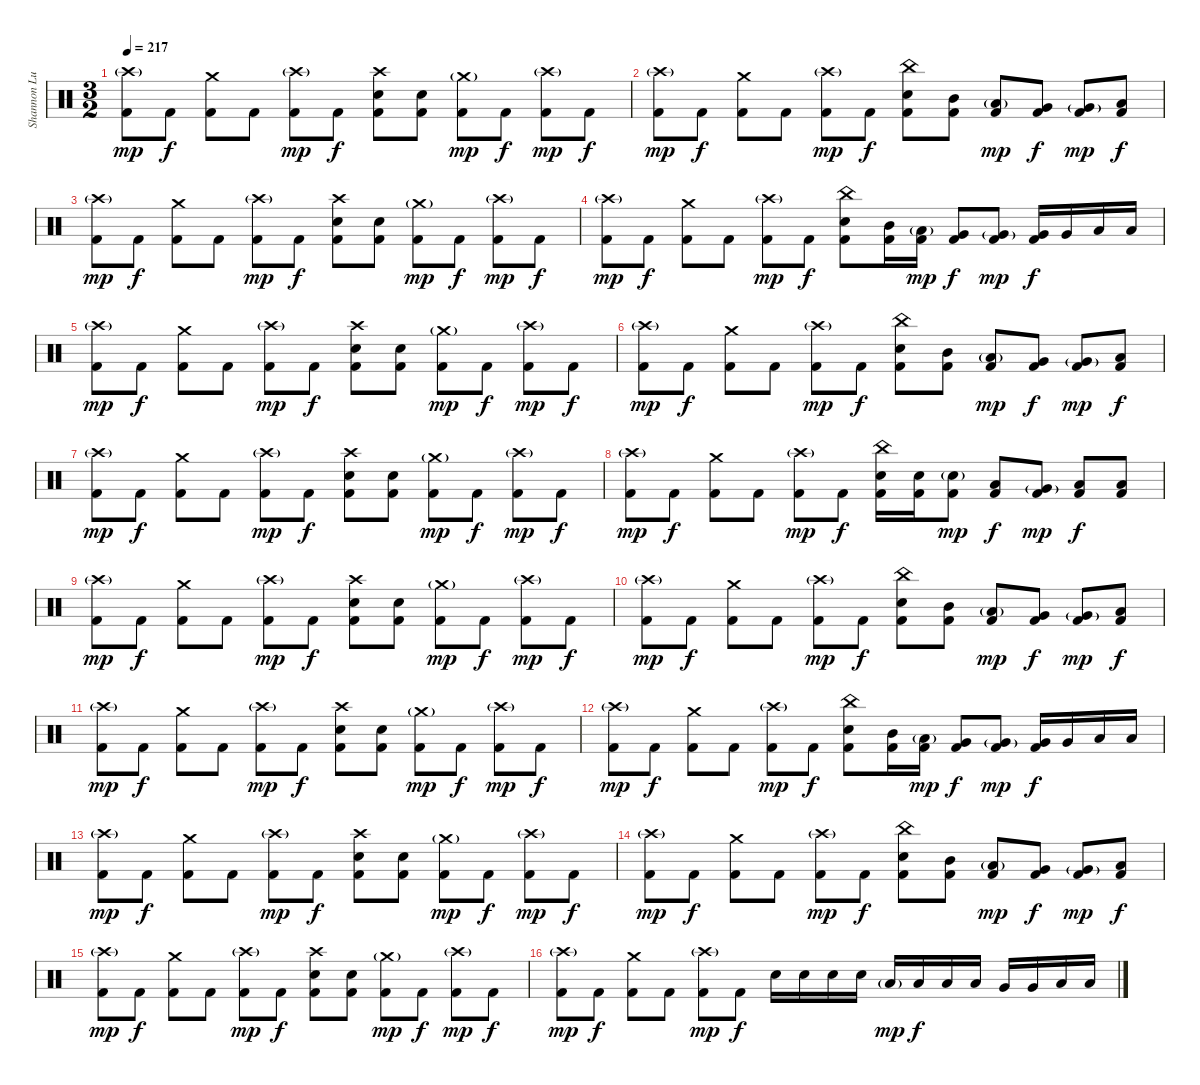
\track ("Shannon Lucas [Drums (Since 2007)]" "Shannon Lu") {instrument percussion}
\staff {score}
\articulation defaults
\ts (3 2)
\tempo 217
\clef neutral
\ks c
("Crash high (hit)"{g} "Kick (hit) 2").8{dy mp} "Kick (hit) 2".8{dy f} ("Crash medium (hit)" "Kick (hit) 2").8 "Kick (hit) 2".8 ("Crash high (hit)"{g} "Kick (hit) 2").8{dy mp} "Kick (hit) 2".8{dy f} ("Crash high (hit)" "Snare (hit) 2" "Kick (hit) 2").8 ("Snare (hit) 2" "Kick (hit) 2").8 ("Crash medium (hit)"{g} "Kick (hit) 2").8{dy mp} "Kick (hit) 2".8{dy f} ("Crash high (hit)"{g} "Kick (hit) 2").8{dy mp} "Kick (hit) 2".8{dy f} |
("Crash high (hit)"{g} "Kick (hit) 2").8{dy mp} "Kick (hit) 2".8{dy f} ("Crash medium (hit)" "Kick (hit) 2").8 "Kick (hit) 2".8 ("Crash high (hit)"{g} "Kick (hit) 2").8{dy mp} "Kick (hit) 2".8{dy f} ("China (hit)" "Snare (hit) 2" "Kick (hit) 2").8 ("Mid Tom (hit)" "Kick (hit) 2").8 ("Low Tom (hit)"{g} "Kick (hit) 2").8{dy mp} ("Very Low Tom (hit)" "Kick (hit) 2").8{dy f} ("Very Low Tom (hit)"{g} "Kick (hit) 2").8{dy mp} ("Low Floor Tom (hit)" "Kick (hit) 2").8{dy f} |
("Crash high (hit)"{g} "Kick (hit) 2").8{dy mp} "Kick (hit) 2".8{dy f} ("Crash medium (hit)" "Kick (hit) 2").8 "Kick (hit) 2".8 ("Crash high (hit)"{g} "Kick (hit) 2").8{dy mp} "Kick (hit) 2".8{dy f} ("Crash high (hit)" "Snare (hit) 2" "Kick (hit) 2").8 ("Snare (hit) 2" "Kick (hit) 2").8 ("Crash medium (hit)"{g} "Kick (hit) 2").8{dy mp} "Kick (hit) 2".8{dy f} ("Crash high (hit)"{g} "Kick (hit) 2").8{dy mp} "Kick (hit) 2".8{dy f} |
("Crash high (hit)"{g} "Kick (hit) 2").8{dy mp} "Kick (hit) 2".8{dy f} ("Crash medium (hit)" "Kick (hit) 2").8 "Kick (hit) 2".8 ("Crash high (hit)"{g} "Kick (hit) 2").8{dy mp} "Kick (hit) 2".8{dy f} ("China (hit)" "Snare (hit) 2" "Kick (hit) 2").8 ("Mid Tom (hit)" "Kick (hit) 2").16 ("Low Tom (hit)"{g} "Kick (hit) 2").16{dy mp} ("Very Low Tom (hit)" "Kick (hit) 2").8{dy f} ("Very Low Tom (hit)"{g} "Kick (hit) 2").8{dy mp} ("Very Low Tom (hit)" "Kick (hit) 2").16{dy f} "Very Low Tom (hit)".16 "Low Floor Tom (hit)".16 "Low Floor Tom (hit)".16 |
("Crash high (hit)"{g} "Kick (hit) 2").8{dy mp} "Kick (hit) 2".8{dy f} ("Crash medium (hit)" "Kick (hit) 2").8 "Kick (hit) 2".8 ("Crash high (hit)"{g} "Kick (hit) 2").8{dy mp} "Kick (hit) 2".8{dy f} ("Crash high (hit)" "Snare (hit) 2" "Kick (hit) 2").8 ("Snare (hit) 2" "Kick (hit) 2").8 ("Crash medium (hit)"{g} "Kick (hit) 2").8{dy mp} "Kick (hit) 2".8{dy f} ("Crash high (hit)"{g} "Kick (hit) 2").8{dy mp} "Kick (hit) 2".8{dy f} |
("Crash high (hit)"{g} "Kick (hit) 2").8{dy mp} "Kick (hit) 2".8{dy f} ("Crash medium (hit)" "Kick (hit) 2").8 "Kick (hit) 2".8 ("Crash high (hit)"{g} "Kick (hit) 2").8{dy mp} "Kick (hit) 2".8{dy f} ("China (hit)" "Snare (hit) 2" "Kick (hit) 2").8 ("Mid Tom (hit)" "Kick (hit) 2").8 ("Low Tom (hit)"{g} "Kick (hit) 2").8{dy mp} ("Very Low Tom (hit)" "Kick (hit) 2").8{dy f} ("Very Low Tom (hit)"{g} "Kick (hit) 2").8{dy mp} ("Low Floor Tom (hit)" "Kick (hit) 2").8{dy f} |
("Crash high (hit)"{g} "Kick (hit) 2").8{dy mp} "Kick (hit) 2".8{dy f} ("Crash medium (hit)" "Kick (hit) 2").8 "Kick (hit) 2".8 ("Crash high (hit)"{g} "Kick (hit) 2").8{dy mp} "Kick (hit) 2".8{dy f} ("Crash high (hit)" "Snare (hit) 2" "Kick (hit) 2").8 ("Snare (hit) 2" "Kick (hit) 2").8 ("Crash medium (hit)"{g} "Kick (hit) 2").8{dy mp} "Kick (hit) 2".8{dy f} ("Crash high (hit)"{g} "Kick (hit) 2").8{dy mp} "Kick (hit) 2".8{dy f} |
("Crash high (hit)"{g} "Kick (hit) 2").8{dy mp} "Kick (hit) 2".8{dy f} ("Crash medium (hit)" "Kick (hit) 2").8 "Kick (hit) 2".8 ("Crash high (hit)"{g} "Kick (hit) 2").8{dy mp} "Kick (hit) 2".8{dy f} ("China (hit)" "Snare (hit) 2" "Kick (hit) 2").16 ("Snare (hit) 2" "Kick (hit) 2").16 ("Snare (hit) 2"{g} "Kick (hit) 2").8{dy mp} ("Low Tom (hit)" "Kick (hit) 2").8{dy f} ("Very Low Tom (hit)"{g} "Kick (hit) 2").8{dy mp} ("Low Floor Tom (hit)" "Kick (hit) 2").8{dy f} ("Low Floor Tom (hit)" "Kick (hit) 2").8 |
("Crash high (hit)"{g} "Kick (hit) 2").8{dy mp} "Kick (hit) 2".8{dy f} ("Crash medium (hit)" "Kick (hit) 2").8 "Kick (hit) 2".8 ("Crash high (hit)"{g} "Kick (hit) 2").8{dy mp} "Kick (hit) 2".8{dy f} ("Crash high (hit)" "Snare (hit) 2" "Kick (hit) 2").8 ("Snare (hit) 2" "Kick (hit) 2").8 ("Crash medium (hit)"{g} "Kick (hit) 2").8{dy mp} "Kick (hit) 2".8{dy f} ("Crash high (hit)"{g} "Kick (hit) 2").8{dy mp} "Kick (hit) 2".8{dy f} |
("Crash high (hit)"{g} "Kick (hit) 2").8{dy mp} "Kick (hit) 2".8{dy f} ("Crash medium (hit)" "Kick (hit) 2").8 "Kick (hit) 2".8 ("Crash high (hit)"{g} "Kick (hit) 2").8{dy mp} "Kick (hit) 2".8{dy f} ("China (hit)" "Snare (hit) 2" "Kick (hit) 2").8 ("Mid Tom (hit)" "Kick (hit) 2").8 ("Low Tom (hit)"{g} "Kick (hit) 2").8{dy mp} ("Very Low Tom (hit)" "Kick (hit) 2").8{dy f} ("Very Low Tom (hit)"{g} "Kick (hit) 2").8{dy mp} ("Low Floor Tom (hit)" "Kick (hit) 2").8{dy f} |
("Crash high (hit)"{g} "Kick (hit) 2").8{dy mp} "Kick (hit) 2".8{dy f} ("Crash medium (hit)" "Kick (hit) 2").8 "Kick (hit) 2".8 ("Crash high (hit)"{g} "Kick (hit) 2").8{dy mp} "Kick (hit) 2".8{dy f} ("Crash high (hit)" "Snare (hit) 2" "Kick (hit) 2").8 ("Snare (hit) 2" "Kick (hit) 2").8 ("Crash medium (hit)"{g} "Kick (hit) 2").8{dy mp} "Kick (hit) 2".8{dy f} ("Crash high (hit)"{g} "Kick (hit) 2").8{dy mp} "Kick (hit) 2".8{dy f} |
("Crash high (hit)"{g} "Kick (hit) 2").8{dy mp} "Kick (hit) 2".8{dy f} ("Crash medium (hit)" "Kick (hit) 2").8 "Kick (hit) 2".8 ("Crash high (hit)"{g} "Kick (hit) 2").8{dy mp} "Kick (hit) 2".8{dy f} ("China (hit)" "Snare (hit) 2" "Kick (hit) 2").8 ("Mid Tom (hit)" "Kick (hit) 2").16 ("Low Tom (hit)"{g} "Kick (hit) 2").16{dy mp} ("Very Low Tom (hit)" "Kick (hit) 2").8{dy f} ("Very Low Tom (hit)"{g} "Kick (hit) 2").8{dy mp} ("Very Low Tom (hit)" "Kick (hit) 2").16{dy f} "Very Low Tom (hit)".16 "Low Floor Tom (hit)".16 "Low Floor Tom (hit)".16 |
("Crash high (hit)"{g} "Kick (hit) 2").8{dy mp} "Kick (hit) 2".8{dy f} ("Crash medium (hit)" "Kick (hit) 2").8 "Kick (hit) 2".8 ("Crash high (hit)"{g} "Kick (hit) 2").8{dy mp} "Kick (hit) 2".8{dy f} ("Crash high (hit)" "Snare (hit) 2" "Kick (hit) 2").8 ("Snare (hit) 2" "Kick (hit) 2").8 ("Crash medium (hit)"{g} "Kick (hit) 2").8{dy mp} "Kick (hit) 2".8{dy f} ("Crash high (hit)"{g} "Kick (hit) 2").8{dy mp} "Kick (hit) 2".8{dy f} |
("Crash high (hit)"{g} "Kick (hit) 2").8{dy mp} "Kick (hit) 2".8{dy f} ("Crash medium (hit)" "Kick (hit) 2").8 "Kick (hit) 2".8 ("Crash high (hit)"{g} "Kick (hit) 2").8{dy mp} "Kick (hit) 2".8{dy f} ("China (hit)" "Snare (hit) 2" "Kick (hit) 2").8 ("Mid Tom (hit)" "Kick (hit) 2").8 ("Low Tom (hit)"{g} "Kick (hit) 2").8{dy mp} ("Very Low Tom (hit)" "Kick (hit) 2").8{dy f} ("Very Low Tom (hit)"{g} "Kick (hit) 2").8{dy mp} ("Low Floor Tom (hit)" "Kick (hit) 2").8{dy f} |
("Crash high (hit)"{g} "Kick (hit) 2").8{dy mp} "Kick (hit) 2".8{dy f} ("Crash medium (hit)" "Kick (hit) 2").8 "Kick (hit) 2".8 ("Crash high (hit)"{g} "Kick (hit) 2").8{dy mp} "Kick (hit) 2".8{dy f} ("Crash high (hit)" "Snare (hit) 2" "Kick (hit) 2").8 ("Snare (hit) 2" "Kick (hit) 2").8 ("Crash medium (hit)"{g} "Kick (hit) 2").8{dy mp} "Kick (hit) 2".8{dy f} ("Crash high (hit)"{g} "Kick (hit) 2").8{dy mp} "Kick (hit) 2".8{dy f} |
("Crash high (hit)"{g} "Kick (hit) 2").8{dy mp} "Kick (hit) 2".8{dy f} ("Crash medium (hit)" "Kick (hit) 2").8 "Kick (hit) 2".8 ("Crash high (hit)"{g} "Kick (hit) 2").8{dy mp} "Kick (hit) 2".8{dy f} "Snare (hit) 2".16 "Snare (hit) 2".16 "Snare (hit) 2".16 "Snare (hit) 2".16 "Low Tom (hit)"{g}.16{dy mp} "Low Tom (hit)".16{dy f} "Low Tom (hit)".16 "Low Tom (hit)".16 "Very Low Tom (hit)".16 "Very Low Tom (hit)".16 "Low Floor Tom (hit)".16 "Low Floor Tom (hit)".16
